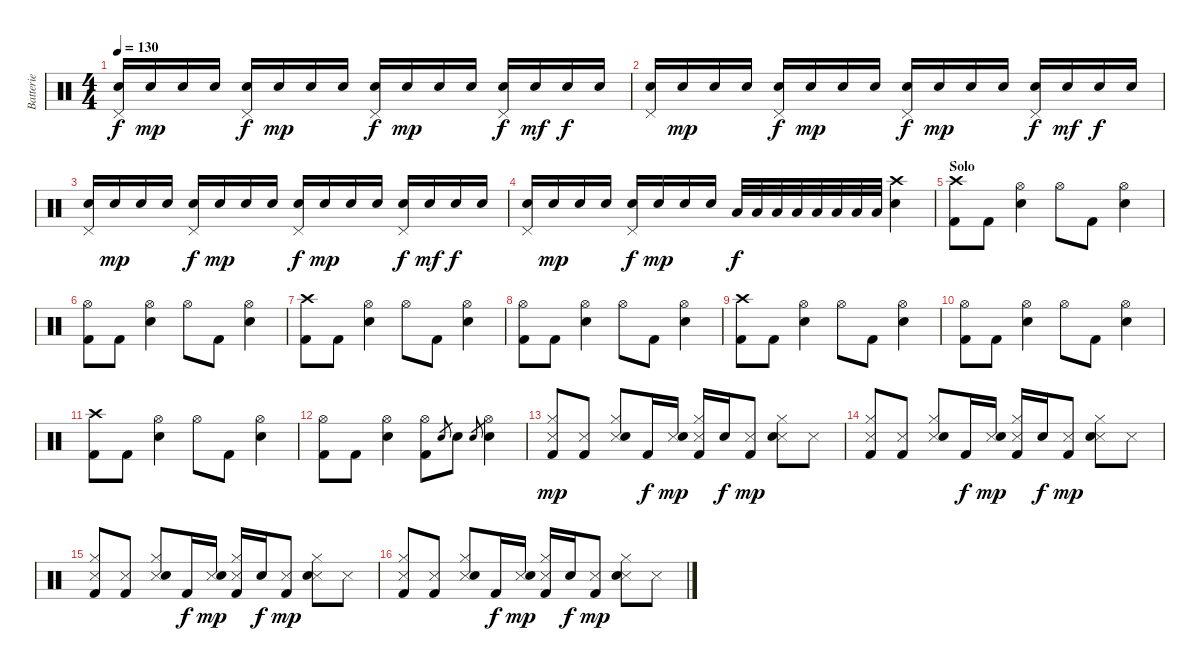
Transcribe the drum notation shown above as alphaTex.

\track ("Batterie" "Batterie") {instrument percussion}
\staff {score}
\articulation defaults
\ts (4 4)
\tempo 130
\clef neutral
\ks c
("Pedal Hi-Hat (hit)" "Snare (hit) 2").16{dy f volume 12} "Snare (hit) 2".16{dy mp} "Snare (hit) 2".16 "Snare (hit) 2".16 ("Pedal Hi-Hat (hit)" "Snare (hit) 2").16{dy f} "Snare (hit) 2".16{dy mp} "Snare (hit) 2".16 "Snare (hit) 2".16 ("Pedal Hi-Hat (hit)" "Snare (hit) 2").16{dy f} "Snare (hit) 2".16{dy mp} "Snare (hit) 2".16 "Snare (hit) 2".16 ("Pedal Hi-Hat (hit)" "Snare (hit) 2").16{dy f} "Snare (hit) 2".16{dy mf} "Snare (hit) 2".16{dy f} "Snare (hit) 2".16 |
("Pedal Hi-Hat (hit)" "Snare (hit) 2").16 "Snare (hit) 2".16{dy mp} "Snare (hit) 2".16 "Snare (hit) 2".16 ("Pedal Hi-Hat (hit)" "Snare (hit) 2").16{dy f} "Snare (hit) 2".16{dy mp} "Snare (hit) 2".16 "Snare (hit) 2".16 ("Pedal Hi-Hat (hit)" "Snare (hit) 2").16{dy f} "Snare (hit) 2".16{dy mp} "Snare (hit) 2".16 "Snare (hit) 2".16 ("Pedal Hi-Hat (hit)" "Snare (hit) 2").16{dy f} "Snare (hit) 2".16{dy mf} "Snare (hit) 2".16{dy f} "Snare (hit) 2".16 |
("Pedal Hi-Hat (hit)" "Snare (hit) 2").16{volume 13} "Snare (hit) 2".16{dy mp} "Snare (hit) 2".16 "Snare (hit) 2".16 ("Pedal Hi-Hat (hit)" "Snare (hit) 2").16{dy f} "Snare (hit) 2".16{dy mp} "Snare (hit) 2".16 "Snare (hit) 2".16 ("Pedal Hi-Hat (hit)" "Snare (hit) 2").16{dy f} "Snare (hit) 2".16{dy mp} "Snare (hit) 2".16 "Snare (hit) 2".16 ("Pedal Hi-Hat (hit)" "Snare (hit) 2").16{dy f} "Snare (hit) 2".16{dy mf} "Snare (hit) 2".16{dy f} "Snare (hit) 2".16 |
("Pedal Hi-Hat (hit)" "Snare (hit) 2").16 "Snare (hit) 2".16{dy mp} "Snare (hit) 2".16 "Snare (hit) 2".16 ("Pedal Hi-Hat (hit)" "Snare (hit) 2").16{dy f} "Snare (hit) 2".16{dy mp} "Snare (hit) 2".16 "Snare (hit) 2".16 "Low Floor Tom (hit)".32{dy f} "Low Floor Tom (hit)".32 "Low Floor Tom (hit)".32 "Low Floor Tom (hit)".32 "Low Floor Tom (hit)".32 "Low Floor Tom (hit)".32 "Low Floor Tom (hit)".32 "Low Floor Tom (hit)".32 ("Crash high (hit)" "Snare (hit) 2").4 |
\section ("" "Solo")
("Crash high (hit)" "Kick (hit) 2").8 "Kick (hit) 2".8 ("Hi-Hat (open)" "Snare (hit) 2").4 "Hi-Hat (open)".8 "Kick (hit) 2".8 ("Hi-Hat (open)" "Snare (hit) 2").4 |
("Hi-Hat (open)" "Kick (hit) 2").8 "Kick (hit) 2".8 ("Hi-Hat (open)" "Snare (hit) 2").4 "Hi-Hat (open)".8 "Kick (hit) 2".8 ("Hi-Hat (open)" "Snare (hit) 2").4 |
("Crash high (hit)" "Kick (hit) 2").8 "Kick (hit) 2".8 ("Hi-Hat (open)" "Snare (hit) 2").4 "Hi-Hat (open)".8 "Kick (hit) 2".8 ("Hi-Hat (open)" "Snare (hit) 2").4 |
("Hi-Hat (open)" "Kick (hit) 2").8 "Kick (hit) 2".8 ("Hi-Hat (open)" "Snare (hit) 2").4 "Hi-Hat (open)".8 "Kick (hit) 2".8 ("Hi-Hat (open)" "Snare (hit) 2").4 |
("Crash high (hit)" "Kick (hit) 2").8 "Kick (hit) 2".8 ("Hi-Hat (open)" "Snare (hit) 2").4 "Hi-Hat (open)".8 "Kick (hit) 2".8 ("Hi-Hat (open)" "Snare (hit) 2").4 |
("Hi-Hat (open)" "Kick (hit) 2").8 "Kick (hit) 2".8 ("Hi-Hat (open)" "Snare (hit) 2").4 "Hi-Hat (open)".8 "Kick (hit) 2".8 ("Hi-Hat (open)" "Snare (hit) 2").4 |
("Crash high (hit)" "Kick (hit) 2").8 "Kick (hit) 2".8 ("Hi-Hat (open)" "Snare (hit) 2").4 "Hi-Hat (open)".8 "Kick (hit) 2".8 ("Hi-Hat (open)" "Snare (hit) 2").4 |
("Hi-Hat (open)" "Kick (hit) 2").8 "Kick (hit) 2".8 ("Hi-Hat (open)" "Snare (hit) 2").4 ("Hi-Hat (open)" "Kick (hit) 2").8 "Snare (hit) 2".8{gr} "Snare (hit) 2".8 "Snare (hit) 2".8{gr} ("Hi-Hat (open)" "Snare (hit) 2").4 |
("Hi-Hat (closed)" "Snare (side stick) 3" "Kick (hit) 2").8{dy mp} ("Snare (side stick) 3" "Kick (hit) 2").8 ("Hi-Hat (closed)" "Snare (side stick) 3" "Snare (hit) 2").8 "Kick (hit) 2".16{dy f} ("Snare (side stick) 3" "Snare (hit) 2").16{dy mp} ("Hi-Hat (closed)" "Snare (side stick) 3" "Kick (hit) 2").16 "Snare (hit) 2".16{dy f} ("Snare (side stick) 3" "Kick (hit) 2").8{dy mp} ("Hi-Hat (closed)" "Snare (side stick) 3" "Snare (hit) 2").8 "Snare (side stick) 3".8 |
("Hi-Hat (closed)" "Snare (side stick) 3" "Kick (hit) 2").8 ("Snare (side stick) 3" "Kick (hit) 2").8 ("Hi-Hat (closed)" "Snare (side stick) 3" "Snare (hit) 2").8 "Kick (hit) 2".16{dy f} ("Snare (side stick) 3" "Snare (hit) 2").16{dy mp} ("Hi-Hat (closed)" "Snare (side stick) 3" "Kick (hit) 2").16 "Snare (hit) 2".16{dy f} ("Snare (side stick) 3" "Kick (hit) 2").8{dy mp} ("Hi-Hat (closed)" "Snare (side stick) 3" "Snare (hit) 2").8 "Snare (side stick) 3".8 |
("Hi-Hat (closed)" "Snare (side stick) 3" "Kick (hit) 2").8 ("Snare (side stick) 3" "Kick (hit) 2").8 ("Hi-Hat (closed)" "Snare (side stick) 3" "Snare (hit) 2").8 "Kick (hit) 2".16{dy f} ("Snare (side stick) 3" "Snare (hit) 2").16{dy mp} ("Hi-Hat (closed)" "Snare (side stick) 3" "Kick (hit) 2").16 "Snare (hit) 2".16{dy f} ("Snare (side stick) 3" "Kick (hit) 2").8{dy mp} ("Hi-Hat (closed)" "Snare (side stick) 3" "Snare (hit) 2").8 "Snare (side stick) 3".8 |
("Hi-Hat (closed)" "Snare (side stick) 3" "Kick (hit) 2").8 ("Snare (side stick) 3" "Kick (hit) 2").8 ("Hi-Hat (closed)" "Snare (side stick) 3" "Snare (hit) 2").8 "Kick (hit) 2".16{dy f} ("Snare (side stick) 3" "Snare (hit) 2").16{dy mp} ("Hi-Hat (closed)" "Snare (side stick) 3" "Kick (hit) 2").16 "Snare (hit) 2".16{dy f} ("Snare (side stick) 3" "Kick (hit) 2").8{dy mp} ("Hi-Hat (closed)" "Snare (side stick) 3" "Snare (hit) 2").8 "Snare (side stick) 3".8
